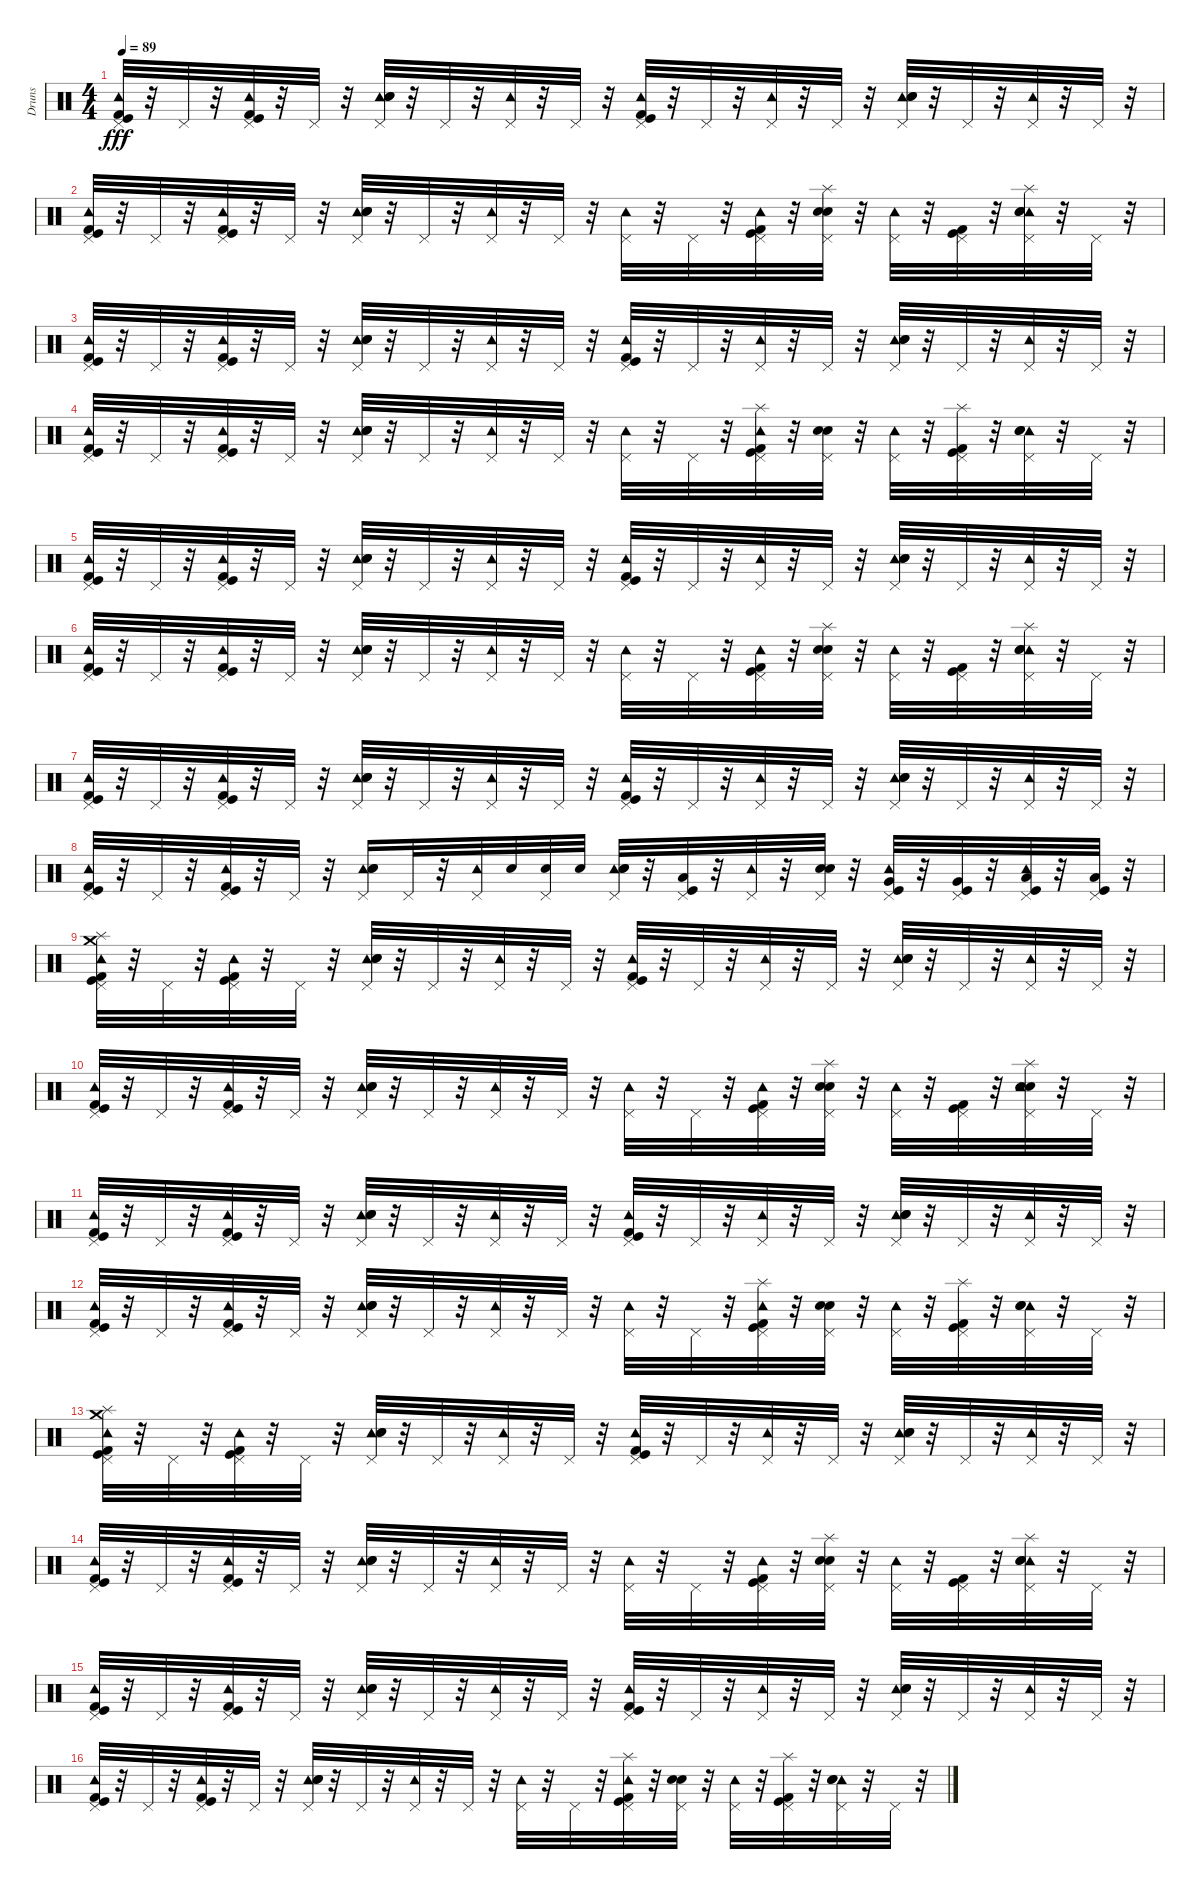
\track ("Druns" "Druns") {instrument percussion}
\staff {score}
\articulation defaults
\ts (4 4)
\tempo 89
\clef neutral
\ks c
("Tambourine (hit)" "Kick (hit) 2" "Kick (hit)" "Pedal Hi-Hat (hit)").32{dy fff} r.32 "Pedal Hi-Hat (hit)".32 r.32 ("Tambourine (hit)" "Pedal Hi-Hat (hit)" "Kick (hit) 2" "Kick (hit)").32 r.32 "Pedal Hi-Hat (hit)".32 r.32 ("Tambourine (hit)" "Snare (hit) 2" "Electric Snare (hit)" "Pedal Hi-Hat (hit)").32 r.32 "Pedal Hi-Hat (hit)".32 r.32 ("Tambourine (hit)" "Pedal Hi-Hat (hit)").32 r.32 "Pedal Hi-Hat (hit)".32 r.32 ("Tambourine (hit)" "Kick (hit) 2" "Kick (hit)" "Pedal Hi-Hat (hit)").32 r.32 "Pedal Hi-Hat (hit)".32 r.32 ("Tambourine (hit)" "Pedal Hi-Hat (hit)").32 r.32 "Pedal Hi-Hat (hit)".32 r.32 ("Tambourine (hit)" "Electric Snare (hit)" "Snare (hit) 2" "Pedal Hi-Hat (hit)").32 r.32 "Pedal Hi-Hat (hit)".32 r.32 ("Tambourine (hit)" "Pedal Hi-Hat (hit)").32 r.32 "Pedal Hi-Hat (hit)".32 r.32 |
("Tambourine (hit)" "Kick (hit) 2" "Kick (hit)" "Pedal Hi-Hat (hit)").32 r.32 "Pedal Hi-Hat (hit)".32 r.32 ("Tambourine (hit)" "Kick (hit) 2" "Kick (hit)" "Pedal Hi-Hat (hit)").32 r.32 "Pedal Hi-Hat (hit)".32 r.32 ("Tambourine (hit)" "Electric Snare (hit)" "Snare (hit) 2" "Pedal Hi-Hat (hit)").32 r.32 "Pedal Hi-Hat (hit)".32 r.32 ("Tambourine (hit)" "Pedal Hi-Hat (hit)").32 r.32 "Pedal Hi-Hat (hit)".32 r.32 ("Tambourine (hit)" "Pedal Hi-Hat (hit)").32 r.32 "Pedal Hi-Hat (hit)".32 r.32 ("Tambourine (hit)" "Kick (hit) 2" "Kick (hit)" "Pedal Hi-Hat (hit)").32 r.32 ("Splash (hit)" "Electric Snare (hit)" "Snare (hit) 2" "Pedal Hi-Hat (hit)").32 r.32 ("Tambourine (hit)" "Pedal Hi-Hat (hit)").32 r.32 ("Kick (hit) 2" "Kick (hit)" "Pedal Hi-Hat (hit)").32 r.32 ("Tambourine (hit)" "Splash (hit)" "Snare (hit) 2" "Electric Snare (hit)" "Pedal Hi-Hat (hit)").32 r.32 "Pedal Hi-Hat (hit)".32 r.32 |
("Tambourine (hit)" "Kick (hit) 2" "Kick (hit)" "Pedal Hi-Hat (hit)").32 r.32 "Pedal Hi-Hat (hit)".32 r.32 ("Tambourine (hit)" "Pedal Hi-Hat (hit)" "Kick (hit) 2" "Kick (hit)").32 r.32 "Pedal Hi-Hat (hit)".32 r.32 ("Tambourine (hit)" "Snare (hit) 2" "Electric Snare (hit)" "Pedal Hi-Hat (hit)").32 r.32 "Pedal Hi-Hat (hit)".32 r.32 ("Tambourine (hit)" "Pedal Hi-Hat (hit)").32 r.32 "Pedal Hi-Hat (hit)".32 r.32 ("Tambourine (hit)" "Kick (hit) 2" "Kick (hit)" "Pedal Hi-Hat (hit)").32 r.32 "Pedal Hi-Hat (hit)".32 r.32 ("Tambourine (hit)" "Pedal Hi-Hat (hit)").32 r.32 "Pedal Hi-Hat (hit)".32 r.32 ("Tambourine (hit)" "Electric Snare (hit)" "Snare (hit) 2" "Pedal Hi-Hat (hit)").32 r.32 "Pedal Hi-Hat (hit)".32 r.32 ("Tambourine (hit)" "Pedal Hi-Hat (hit)").32 r.32 "Pedal Hi-Hat (hit)".32 r.32 |
("Tambourine (hit)" "Kick (hit) 2" "Kick (hit)" "Pedal Hi-Hat (hit)").32 r.32 "Pedal Hi-Hat (hit)".32 r.32 ("Tambourine (hit)" "Kick (hit) 2" "Kick (hit)" "Pedal Hi-Hat (hit)").32 r.32 "Pedal Hi-Hat (hit)".32 r.32 ("Tambourine (hit)" "Electric Snare (hit)" "Snare (hit) 2" "Pedal Hi-Hat (hit)").32 r.32 "Pedal Hi-Hat (hit)".32 r.32 ("Tambourine (hit)" "Pedal Hi-Hat (hit)").32 r.32 "Pedal Hi-Hat (hit)".32 r.32 ("Tambourine (hit)" "Pedal Hi-Hat (hit)").32 r.32 "Pedal Hi-Hat (hit)".32 r.32 ("Tambourine (hit)" "Kick (hit) 2" "Kick (hit)" "Pedal Hi-Hat (hit)" "Splash (hit)").32 r.32 ("Electric Snare (hit)" "Snare (hit) 2" "Pedal Hi-Hat (hit)").32 r.32 ("Tambourine (hit)" "Pedal Hi-Hat (hit)").32 r.32 ("Kick (hit) 2" "Kick (hit)" "Pedal Hi-Hat (hit)" "Splash (hit)").32 r.32 ("Tambourine (hit)" "Snare (hit) 2" "Electric Snare (hit)" "Pedal Hi-Hat (hit)").32 r.32 "Pedal Hi-Hat (hit)".32 r.32 |
("Tambourine (hit)" "Kick (hit) 2" "Kick (hit)" "Pedal Hi-Hat (hit)").32 r.32 "Pedal Hi-Hat (hit)".32 r.32 ("Tambourine (hit)" "Pedal Hi-Hat (hit)" "Kick (hit) 2" "Kick (hit)").32 r.32 "Pedal Hi-Hat (hit)".32 r.32 ("Tambourine (hit)" "Snare (hit) 2" "Electric Snare (hit)" "Pedal Hi-Hat (hit)").32 r.32 "Pedal Hi-Hat (hit)".32 r.32 ("Tambourine (hit)" "Pedal Hi-Hat (hit)").32 r.32 "Pedal Hi-Hat (hit)".32 r.32 ("Tambourine (hit)" "Kick (hit) 2" "Kick (hit)" "Pedal Hi-Hat (hit)").32 r.32 "Pedal Hi-Hat (hit)".32 r.32 ("Tambourine (hit)" "Pedal Hi-Hat (hit)").32 r.32 "Pedal Hi-Hat (hit)".32 r.32 ("Tambourine (hit)" "Electric Snare (hit)" "Snare (hit) 2" "Pedal Hi-Hat (hit)").32 r.32 "Pedal Hi-Hat (hit)".32 r.32 ("Tambourine (hit)" "Pedal Hi-Hat (hit)").32 r.32 "Pedal Hi-Hat (hit)".32 r.32 |
("Tambourine (hit)" "Kick (hit) 2" "Kick (hit)" "Pedal Hi-Hat (hit)").32 r.32 "Pedal Hi-Hat (hit)".32 r.32 ("Tambourine (hit)" "Kick (hit) 2" "Kick (hit)" "Pedal Hi-Hat (hit)").32 r.32 "Pedal Hi-Hat (hit)".32 r.32 ("Tambourine (hit)" "Electric Snare (hit)" "Snare (hit) 2" "Pedal Hi-Hat (hit)").32 r.32 "Pedal Hi-Hat (hit)".32 r.32 ("Tambourine (hit)" "Pedal Hi-Hat (hit)").32 r.32 "Pedal Hi-Hat (hit)".32 r.32 ("Tambourine (hit)" "Pedal Hi-Hat (hit)").32 r.32 "Pedal Hi-Hat (hit)".32 r.32 ("Tambourine (hit)" "Kick (hit) 2" "Kick (hit)" "Pedal Hi-Hat (hit)").32 r.32 ("Splash (hit)" "Electric Snare (hit)" "Snare (hit) 2" "Pedal Hi-Hat (hit)").32 r.32 ("Tambourine (hit)" "Pedal Hi-Hat (hit)").32 r.32 ("Kick (hit) 2" "Kick (hit)" "Pedal Hi-Hat (hit)").32 r.32 ("Tambourine (hit)" "Splash (hit)" "Snare (hit) 2" "Electric Snare (hit)" "Pedal Hi-Hat (hit)").32 r.32 "Pedal Hi-Hat (hit)".32 r.32 |
("Tambourine (hit)" "Kick (hit) 2" "Kick (hit)" "Pedal Hi-Hat (hit)").32 r.32 "Pedal Hi-Hat (hit)".32 r.32 ("Tambourine (hit)" "Pedal Hi-Hat (hit)" "Kick (hit) 2" "Kick (hit)").32 r.32 "Pedal Hi-Hat (hit)".32 r.32 ("Tambourine (hit)" "Snare (hit) 2" "Electric Snare (hit)" "Pedal Hi-Hat (hit)").32 r.32 "Pedal Hi-Hat (hit)".32 r.32 ("Tambourine (hit)" "Pedal Hi-Hat (hit)").32 r.32 "Pedal Hi-Hat (hit)".32 r.32 ("Tambourine (hit)" "Kick (hit) 2" "Kick (hit)" "Pedal Hi-Hat (hit)").32 r.32 "Pedal Hi-Hat (hit)".32 r.32 ("Tambourine (hit)" "Pedal Hi-Hat (hit)").32 r.32 "Pedal Hi-Hat (hit)".32 r.32 ("Tambourine (hit)" "Electric Snare (hit)" "Snare (hit) 2" "Pedal Hi-Hat (hit)").32 r.32 "Pedal Hi-Hat (hit)".32 r.32 ("Tambourine (hit)" "Pedal Hi-Hat (hit)").32 r.32 "Pedal Hi-Hat (hit)".32 r.32 |
("Tambourine (hit)" "Kick (hit) 2" "Kick (hit)" "Pedal Hi-Hat (hit)").32 r.32 "Pedal Hi-Hat (hit)".32 r.32 ("Tambourine (hit)" "Kick (hit) 2" "Kick (hit)" "Pedal Hi-Hat (hit)").32 r.32 "Pedal Hi-Hat (hit)".32 r.32 ("Tambourine (hit)" "Electric Snare (hit)" "Snare (hit) 2" "Pedal Hi-Hat (hit)").16 "Pedal Hi-Hat (hit)".32 r.32 ("Tambourine (hit)" "Pedal Hi-Hat (hit)").32 "Snare (hit) 2".32 ("Pedal Hi-Hat (hit)" "Snare (hit) 2").32 "Snare (hit) 2".32 ("Tambourine (hit)" "Pedal Hi-Hat (hit)" "Electric Snare (hit)" "Snare (hit) 2").32 r.32 ("Kick (hit)" "Low Tom (hit)" "Pedal Hi-Hat (hit)").32 r.32 ("Tambourine (hit)" "Pedal Hi-Hat (hit)").32 r.32 ("Electric Snare (hit)" "Snare (hit) 2" "Pedal Hi-Hat (hit)").32 r.32 ("Kick (hit)" "Very Low Tom (hit)" "Tambourine (hit)" "Pedal Hi-Hat (hit)").32 r.32 ("Kick (hit)" "Very Low Tom (hit)" "Pedal Hi-Hat (hit)").32 r.32 ("Kick (hit)" "Low Floor Tom (hit)" "Tambourine (hit)" "Pedal Hi-Hat (hit)").32 r.32 ("Kick (hit)" "Low Floor Tom (hit)" "Pedal Hi-Hat (hit)").32 r.32 |
("Kick (hit)" "Splash (hit)" "Tambourine (hit)" "Kick (hit) 2" "Crash medium (hit)" "Pedal Hi-Hat (hit)").32 r.32 "Pedal Hi-Hat (hit)".32 r.32 ("Kick (hit) 2" "Kick (hit)" "Tambourine (hit)" "Pedal Hi-Hat (hit)").32 r.32 "Pedal Hi-Hat (hit)".32 r.32 ("Tambourine (hit)" "Snare (hit) 2" "Electric Snare (hit)" "Pedal Hi-Hat (hit)").32 r.32 "Pedal Hi-Hat (hit)".32 r.32 ("Tambourine (hit)" "Pedal Hi-Hat (hit)").32 r.32 "Pedal Hi-Hat (hit)".32 r.32 ("Pedal Hi-Hat (hit)" "Kick (hit)" "Kick (hit) 2" "Tambourine (hit)").32 r.32 "Pedal Hi-Hat (hit)".32 r.32 ("Tambourine (hit)" "Pedal Hi-Hat (hit)").32 r.32 "Pedal Hi-Hat (hit)".32 r.32 ("Tambourine (hit)" "Pedal Hi-Hat (hit)" "Electric Snare (hit)" "Snare (hit) 2").32 r.32 "Pedal Hi-Hat (hit)".32 r.32 ("Tambourine (hit)" "Pedal Hi-Hat (hit)").32 r.32 "Pedal Hi-Hat (hit)".32 r.32 |
("Kick (hit)" "Pedal Hi-Hat (hit)" "Tambourine (hit)" "Kick (hit) 2").32 r.32 "Pedal Hi-Hat (hit)".32 r.32 ("Tambourine (hit)" "Kick (hit) 2" "Kick (hit)" "Pedal Hi-Hat (hit)").32 r.32 "Pedal Hi-Hat (hit)".32 r.32 ("Tambourine (hit)" "Snare (hit) 2" "Pedal Hi-Hat (hit)" "Electric Snare (hit)").32 r.32 "Pedal Hi-Hat (hit)".32 r.32 ("Tambourine (hit)" "Pedal Hi-Hat (hit)").32 r.32 "Pedal Hi-Hat (hit)".32 r.32 ("Tambourine (hit)" "Pedal Hi-Hat (hit)").32 r.32 "Pedal Hi-Hat (hit)".32 r.32 ("Tambourine (hit)" "Pedal Hi-Hat (hit)" "Kick (hit) 2" "Kick (hit)").32 r.32 ("Splash (hit)" "Electric Snare (hit)" "Snare (hit) 2" "Pedal Hi-Hat (hit)").32 r.32 ("Tambourine (hit)" "Pedal Hi-Hat (hit)").32 r.32 ("Kick (hit) 2" "Kick (hit)" "Pedal Hi-Hat (hit)").32 r.32 ("Snare (hit) 2" "Splash (hit)" "Tambourine (hit)" "Pedal Hi-Hat (hit)" "Electric Snare (hit)").32 r.32 "Pedal Hi-Hat (hit)".32 r.32 |
("Tambourine (hit)" "Kick (hit) 2" "Kick (hit)" "Pedal Hi-Hat (hit)").32 r.32 "Pedal Hi-Hat (hit)".32 r.32 ("Tambourine (hit)" "Pedal Hi-Hat (hit)" "Kick (hit) 2" "Kick (hit)").32 r.32 "Pedal Hi-Hat (hit)".32 r.32 ("Tambourine (hit)" "Snare (hit) 2" "Electric Snare (hit)" "Pedal Hi-Hat (hit)").32 r.32 "Pedal Hi-Hat (hit)".32 r.32 ("Tambourine (hit)" "Pedal Hi-Hat (hit)").32 r.32 "Pedal Hi-Hat (hit)".32 r.32 ("Tambourine (hit)" "Kick (hit) 2" "Kick (hit)" "Pedal Hi-Hat (hit)").32 r.32 "Pedal Hi-Hat (hit)".32 r.32 ("Tambourine (hit)" "Pedal Hi-Hat (hit)").32 r.32 "Pedal Hi-Hat (hit)".32 r.32 ("Tambourine (hit)" "Electric Snare (hit)" "Snare (hit) 2" "Pedal Hi-Hat (hit)").32 r.32 "Pedal Hi-Hat (hit)".32 r.32 ("Tambourine (hit)" "Pedal Hi-Hat (hit)").32 r.32 "Pedal Hi-Hat (hit)".32 r.32 |
("Tambourine (hit)" "Kick (hit) 2" "Kick (hit)" "Pedal Hi-Hat (hit)").32 r.32 "Pedal Hi-Hat (hit)".32 r.32 ("Tambourine (hit)" "Kick (hit) 2" "Kick (hit)" "Pedal Hi-Hat (hit)").32 r.32 "Pedal Hi-Hat (hit)".32 r.32 ("Tambourine (hit)" "Electric Snare (hit)" "Snare (hit) 2" "Pedal Hi-Hat (hit)").32 r.32 "Pedal Hi-Hat (hit)".32 r.32 ("Tambourine (hit)" "Pedal Hi-Hat (hit)").32 r.32 "Pedal Hi-Hat (hit)".32 r.32 ("Tambourine (hit)" "Pedal Hi-Hat (hit)").32 r.32 "Pedal Hi-Hat (hit)".32 r.32 ("Tambourine (hit)" "Kick (hit) 2" "Kick (hit)" "Pedal Hi-Hat (hit)" "Splash (hit)").32 r.32 ("Electric Snare (hit)" "Snare (hit) 2" "Pedal Hi-Hat (hit)").32 r.32 ("Tambourine (hit)" "Pedal Hi-Hat (hit)").32 r.32 ("Kick (hit) 2" "Kick (hit)" "Pedal Hi-Hat (hit)" "Splash (hit)").32 r.32 ("Tambourine (hit)" "Snare (hit) 2" "Electric Snare (hit)" "Pedal Hi-Hat (hit)").32 r.32 "Pedal Hi-Hat (hit)".32 r.32 |
("Tambourine (hit)" "Kick (hit) 2" "Kick (hit)" "Splash (hit)" "Crash medium (hit)" "Pedal Hi-Hat (hit)").32 r.32 "Pedal Hi-Hat (hit)".32 r.32 ("Tambourine (hit)" "Pedal Hi-Hat (hit)" "Kick (hit) 2" "Kick (hit)").32 r.32 "Pedal Hi-Hat (hit)".32 r.32 ("Tambourine (hit)" "Snare (hit) 2" "Electric Snare (hit)" "Pedal Hi-Hat (hit)").32 r.32 "Pedal Hi-Hat (hit)".32 r.32 ("Tambourine (hit)" "Pedal Hi-Hat (hit)").32 r.32 "Pedal Hi-Hat (hit)".32 r.32 ("Tambourine (hit)" "Kick (hit) 2" "Kick (hit)" "Pedal Hi-Hat (hit)").32 r.32 "Pedal Hi-Hat (hit)".32 r.32 ("Tambourine (hit)" "Pedal Hi-Hat (hit)").32 r.32 "Pedal Hi-Hat (hit)".32 r.32 ("Tambourine (hit)" "Electric Snare (hit)" "Snare (hit) 2" "Pedal Hi-Hat (hit)").32 r.32 "Pedal Hi-Hat (hit)".32 r.32 ("Tambourine (hit)" "Pedal Hi-Hat (hit)").32 r.32 "Pedal Hi-Hat (hit)".32 r.32 |
("Tambourine (hit)" "Kick (hit) 2" "Kick (hit)" "Pedal Hi-Hat (hit)").32 r.32 "Pedal Hi-Hat (hit)".32 r.32 ("Tambourine (hit)" "Kick (hit) 2" "Kick (hit)" "Pedal Hi-Hat (hit)").32 r.32 "Pedal Hi-Hat (hit)".32 r.32 ("Tambourine (hit)" "Electric Snare (hit)" "Snare (hit) 2" "Pedal Hi-Hat (hit)").32 r.32 "Pedal Hi-Hat (hit)".32 r.32 ("Tambourine (hit)" "Pedal Hi-Hat (hit)").32 r.32 "Pedal Hi-Hat (hit)".32 r.32 ("Tambourine (hit)" "Pedal Hi-Hat (hit)").32 r.32 "Pedal Hi-Hat (hit)".32 r.32 ("Tambourine (hit)" "Kick (hit) 2" "Kick (hit)" "Pedal Hi-Hat (hit)").32 r.32 ("Splash (hit)" "Electric Snare (hit)" "Snare (hit) 2" "Pedal Hi-Hat (hit)").32 r.32 ("Tambourine (hit)" "Pedal Hi-Hat (hit)").32 r.32 ("Kick (hit) 2" "Kick (hit)" "Pedal Hi-Hat (hit)").32 r.32 ("Tambourine (hit)" "Splash (hit)" "Snare (hit) 2" "Electric Snare (hit)" "Pedal Hi-Hat (hit)").32 r.32 "Pedal Hi-Hat (hit)".32 r.32 |
("Tambourine (hit)" "Kick (hit) 2" "Kick (hit)" "Pedal Hi-Hat (hit)").32 r.32 "Pedal Hi-Hat (hit)".32 r.32 ("Tambourine (hit)" "Pedal Hi-Hat (hit)" "Kick (hit) 2" "Kick (hit)").32 r.32 "Pedal Hi-Hat (hit)".32 r.32 ("Tambourine (hit)" "Snare (hit) 2" "Electric Snare (hit)" "Pedal Hi-Hat (hit)").32 r.32 "Pedal Hi-Hat (hit)".32 r.32 ("Tambourine (hit)" "Pedal Hi-Hat (hit)").32 r.32 "Pedal Hi-Hat (hit)".32 r.32 ("Tambourine (hit)" "Kick (hit) 2" "Kick (hit)" "Pedal Hi-Hat (hit)").32 r.32 "Pedal Hi-Hat (hit)".32 r.32 ("Tambourine (hit)" "Pedal Hi-Hat (hit)").32 r.32 "Pedal Hi-Hat (hit)".32 r.32 ("Tambourine (hit)" "Electric Snare (hit)" "Snare (hit) 2" "Pedal Hi-Hat (hit)").32 r.32 "Pedal Hi-Hat (hit)".32 r.32 ("Tambourine (hit)" "Pedal Hi-Hat (hit)").32 r.32 "Pedal Hi-Hat (hit)".32 r.32 |
("Tambourine (hit)" "Kick (hit) 2" "Kick (hit)" "Pedal Hi-Hat (hit)").32 r.32 "Pedal Hi-Hat (hit)".32 r.32 ("Tambourine (hit)" "Kick (hit) 2" "Kick (hit)" "Pedal Hi-Hat (hit)").32 r.32 "Pedal Hi-Hat (hit)".32 r.32 ("Tambourine (hit)" "Electric Snare (hit)" "Snare (hit) 2" "Pedal Hi-Hat (hit)").32 r.32 "Pedal Hi-Hat (hit)".32 r.32 ("Tambourine (hit)" "Pedal Hi-Hat (hit)").32 r.32 "Pedal Hi-Hat (hit)".32 r.32 ("Tambourine (hit)" "Pedal Hi-Hat (hit)").32 r.32 "Pedal Hi-Hat (hit)".32 r.32 ("Tambourine (hit)" "Kick (hit) 2" "Kick (hit)" "Pedal Hi-Hat (hit)" "Splash (hit)").32 r.32 ("Electric Snare (hit)" "Snare (hit) 2" "Pedal Hi-Hat (hit)").32 r.32 ("Tambourine (hit)" "Pedal Hi-Hat (hit)").32 r.32 ("Kick (hit) 2" "Kick (hit)" "Pedal Hi-Hat (hit)" "Splash (hit)").32 r.32 ("Tambourine (hit)" "Snare (hit) 2" "Electric Snare (hit)" "Pedal Hi-Hat (hit)").32 r.32 "Pedal Hi-Hat (hit)".32 r.32
